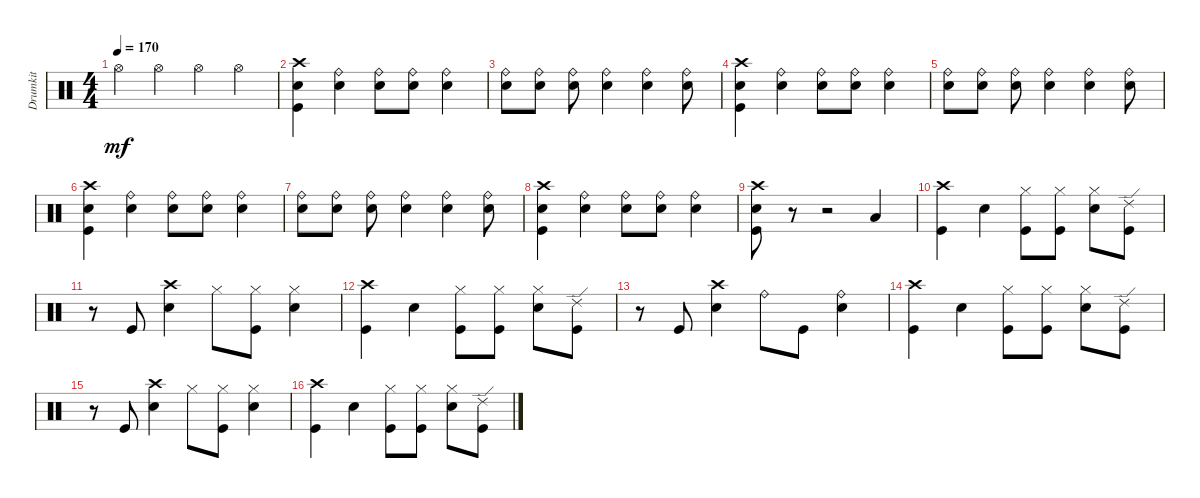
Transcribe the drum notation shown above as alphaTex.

\track ("Drumkit" "Drumkit") {instrument percussion}
\staff {score}
\articulation defaults
\ts (4 4)
\tempo 170
\clef neutral
\ks c "Hi-Hat (open)".4{dy mf} "Hi-Hat (open)".4 "Hi-Hat (open)".4 "Hi-Hat (open)".4
|
("Snare (hit) 2" "Kick (hit)" "Crash high (hit)").4 ("Snare (hit) 2" "Ride (bell)").4 ("Snare (hit) 2" "Ride (bell)").8 ("Snare (hit) 2" "Ride (bell)").8 ("Snare (hit) 2" "Ride (bell)").4 |
("Snare (hit) 2" "Ride (bell)").8 ("Snare (hit) 2" "Ride (bell)").8 ("Snare (hit) 2" "Ride (bell)").8 ("Snare (hit) 2" "Ride (bell)").4 ("Snare (hit) 2" "Ride (bell)").4 ("Snare (hit) 2" "Ride (bell)").8 |
("Snare (hit) 2" "Kick (hit)" "Crash high (hit)").4 ("Snare (hit) 2" "Ride (bell)").4 ("Snare (hit) 2" "Ride (bell)").8 ("Snare (hit) 2" "Ride (bell)").8 ("Snare (hit) 2" "Ride (bell)").4 |
("Snare (hit) 2" "Ride (bell)").8 ("Snare (hit) 2" "Ride (bell)").8 ("Snare (hit) 2" "Ride (bell)").8 ("Snare (hit) 2" "Ride (bell)").4 ("Snare (hit) 2" "Ride (bell)").4 ("Snare (hit) 2" "Ride (bell)").8 |
("Snare (hit) 2" "Kick (hit)" "Crash high (hit)").4 ("Snare (hit) 2" "Ride (bell)").4 ("Snare (hit) 2" "Ride (bell)").8 ("Snare (hit) 2" "Ride (bell)").8 ("Snare (hit) 2" "Ride (bell)").4 |
("Snare (hit) 2" "Ride (bell)").8 ("Snare (hit) 2" "Ride (bell)").8 ("Snare (hit) 2" "Ride (bell)").8 ("Snare (hit) 2" "Ride (bell)").4 ("Snare (hit) 2" "Ride (bell)").4 ("Snare (hit) 2" "Ride (bell)").8 |
("Snare (hit) 2" "Kick (hit)" "Crash high (hit)").4 ("Snare (hit) 2" "Ride (bell)").4 ("Snare (hit) 2" "Ride (bell)").8 ("Snare (hit) 2" "Ride (bell)").8 ("Snare (hit) 2" "Ride (bell)").4 |
("Snare (hit) 2" "Kick (hit)" "Crash high (hit)").8 r.8 r.2 "Low Tom (hit)".4 |
("Kick (hit)" "Crash high (hit)").4 "Snare (hit) 2".4 ("Kick (hit)" "Hi-Hat (closed)").8 ("Kick (hit)" "Hi-Hat (closed)").8 ("Snare (hit) 2" "Hi-Hat (closed)").8 ("Kick (hit)" "Ride (edge) 2").8 |
r.8 "Kick (hit)".8 ("Snare (hit) 2" "Crash high (hit)").4 "Hi-Hat (closed)".8 ("Kick (hit)" "Hi-Hat (closed)").8 ("Snare (hit) 2" "Hi-Hat (closed)").4 |
("Kick (hit)" "Crash high (hit)").4 "Snare (hit) 2".4 ("Kick (hit)" "Hi-Hat (closed)").8 ("Kick (hit)" "Hi-Hat (closed)").8 ("Snare (hit) 2" "Hi-Hat (closed)").8 ("Kick (hit)" "Ride (edge) 2").8 |
r.8 "Kick (hit)".8 ("Snare (hit) 2" "Crash high (hit)").4 "Ride (bell)".8 "Kick (hit)".8 ("Snare (hit) 2" "Ride (bell)").4 |
("Kick (hit)" "Crash high (hit)").4 "Snare (hit) 2".4 ("Kick (hit)" "Hi-Hat (closed)").8 ("Kick (hit)" "Hi-Hat (closed)").8 ("Snare (hit) 2" "Hi-Hat (closed)").8 ("Kick (hit)" "Ride (edge) 2").8 |
r.8 "Kick (hit)".8 ("Snare (hit) 2" "Crash high (hit)").4 "Hi-Hat (closed)".8 ("Kick (hit)" "Hi-Hat (closed)").8 ("Snare (hit) 2" "Hi-Hat (closed)").4 |
("Kick (hit)" "Crash high (hit)").4 "Snare (hit) 2".4 ("Kick (hit)" "Hi-Hat (closed)").8 ("Kick (hit)" "Hi-Hat (closed)").8 ("Snare (hit) 2" "Hi-Hat (closed)").8 ("Kick (hit)" "Ride (edge) 2").8
